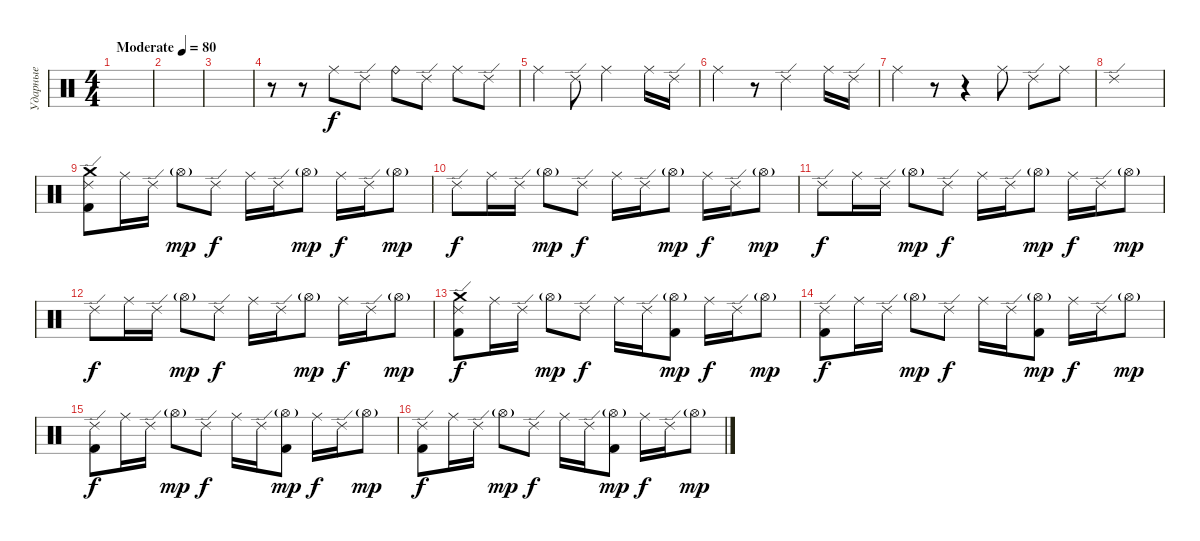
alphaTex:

\track ("Ударные" "Ударные") {instrument percussion}
\staff {score}
\articulation defaults
\ts (4 4)
\tempo (80 "Moderate")
\clef neutral
\ks c
|
|
|
r.8 r.8 "Ride (middle)".8 "Ride (edge) 2".8 "Ride (bell)".8 "Ride (edge) 2".8 "Ride (middle)".8 "Ride (edge) 2".8 |
"Ride (middle)".4 "Ride (edge) 2".8 "Ride (middle)".2 "Ride (middle)".16 "Ride (edge) 2".16 |
"Ride (middle)".4 r.8 "Ride (edge) 2".2 "Ride (middle)".16 "Ride (edge) 2".16 |
"Ride (middle)".4 r.8 r.4 "Ride (middle)".8 "Ride (edge) 2".8 "Ride (middle)".8 |
"Ride (edge) 2".1 |
("Ride (edge) 2" "Crash medium (hit)" "Kick (hit) 2").8 "Ride (middle)".16 "Ride (edge) 2".16 "Hi-Hat (open)"{g}.8{dy mp} "Ride (edge) 2".8{dy f} "Ride (middle)".16 "Ride (edge) 2".16 "Hi-Hat (open)"{g}.8{dy mp} "Ride (middle)".16{dy f} "Ride (edge) 2".16 "Hi-Hat (open)"{g}.8{dy mp} |
"Ride (edge) 2".8{dy f} "Ride (middle)".16 "Ride (edge) 2".16 "Hi-Hat (open)"{g}.8{dy mp} "Ride (edge) 2".8{dy f} "Ride (middle)".16 "Ride (edge) 2".16 "Hi-Hat (open)"{g}.8{dy mp} "Ride (middle)".16{dy f} "Ride (edge) 2".16 "Hi-Hat (open)"{g}.8{dy mp} |
"Ride (edge) 2".8{dy f} "Ride (middle)".16 "Ride (edge) 2".16 "Hi-Hat (open)"{g}.8{dy mp} "Ride (edge) 2".8{dy f} "Ride (middle)".16 "Ride (edge) 2".16 "Hi-Hat (open)"{g}.8{dy mp} "Ride (middle)".16{dy f} "Ride (edge) 2".16 "Hi-Hat (open)"{g}.8{dy mp} |
"Ride (edge) 2".8{dy f} "Ride (middle)".16 "Ride (edge) 2".16 "Hi-Hat (open)"{g}.8{dy mp} "Ride (edge) 2".8{dy f} "Ride (middle)".16 "Ride (edge) 2".16 "Hi-Hat (open)"{g}.8{dy mp} "Ride (middle)".16{dy f} "Ride (edge) 2".16 "Hi-Hat (open)"{g}.8{dy mp} |
("Ride (edge) 2" "Crash medium (hit)" "Kick (hit) 2").8{dy f} "Ride (middle)".16 "Ride (edge) 2".16 "Hi-Hat (open)"{g}.8{dy mp} "Ride (edge) 2".8{dy f} "Ride (middle)".16 "Ride (edge) 2".16 ("Hi-Hat (open)"{g} "Kick (hit) 2").8{dy mp} "Ride (middle)".16{dy f} "Ride (edge) 2".16 "Hi-Hat (open)"{g}.8{dy mp} |
("Ride (edge) 2" "Kick (hit) 2").8{dy f} "Ride (middle)".16 "Ride (edge) 2".16 "Hi-Hat (open)"{g}.8{dy mp} "Ride (edge) 2".8{dy f} "Ride (middle)".16 "Ride (edge) 2".16 ("Hi-Hat (open)"{g} "Kick (hit) 2").8{dy mp} "Ride (middle)".16{dy f} "Ride (edge) 2".16 "Hi-Hat (open)"{g}.8{dy mp} |
("Ride (edge) 2" "Kick (hit) 2").8{dy f} "Ride (middle)".16 "Ride (edge) 2".16 "Hi-Hat (open)"{g}.8{dy mp} "Ride (edge) 2".8{dy f} "Ride (middle)".16 "Ride (edge) 2".16 ("Hi-Hat (open)"{g} "Kick (hit) 2").8{dy mp} "Ride (middle)".16{dy f} "Ride (edge) 2".16 "Hi-Hat (open)"{g}.8{dy mp} |
("Ride (edge) 2" "Kick (hit) 2").8{dy f} "Ride (middle)".16 "Ride (edge) 2".16 "Hi-Hat (open)"{g}.8{dy mp} "Ride (edge) 2".8{dy f} "Ride (middle)".16 "Ride (edge) 2".16 ("Hi-Hat (open)"{g} "Kick (hit) 2").8{dy mp} "Ride (middle)".16{dy f} "Ride (edge) 2".16 "Hi-Hat (open)"{g}.8{dy mp}
